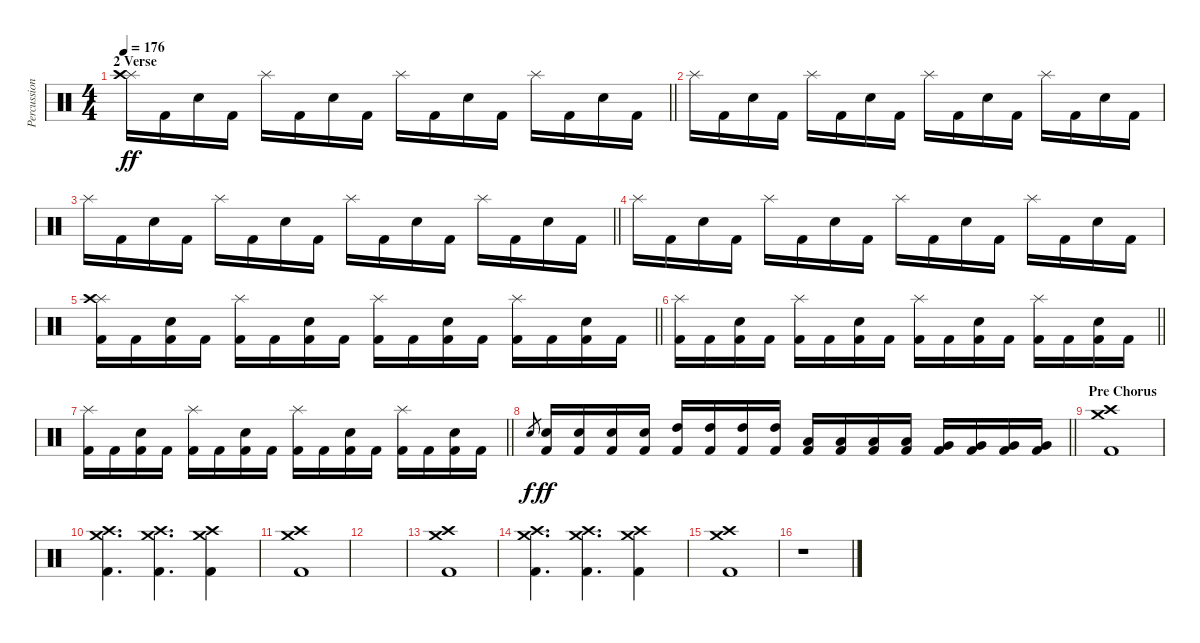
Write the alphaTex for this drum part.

\track ("Percussion" "Percussion") {instrument percussion}
\staff {score}
\articulation defaults
\ts (4 4)
\section ("" "2 Verse")
\tempo 176
\clef neutral
\barLineRight lightlight
\ks c
("Splash (hit)" "Crash high (hit)").16{dy ff} "Kick (hit) 2".16 "Electric Snare (hit)".16 "Kick (hit) 2".16 "Splash (hit)".16 "Kick (hit) 2".16 "Electric Snare (hit)".16 "Kick (hit) 2".16 "Splash (hit)".16 "Kick (hit) 2".16 "Electric Snare (hit)".16 "Kick (hit) 2".16 "Splash (hit)".16 "Kick (hit) 2".16 "Electric Snare (hit)".16 "Kick (hit) 2".16 |
"Splash (hit)".16 "Kick (hit) 2".16 "Electric Snare (hit)".16 "Kick (hit) 2".16 "Splash (hit)".16 "Kick (hit) 2".16 "Electric Snare (hit)".16 "Kick (hit) 2".16 "Splash (hit)".16 "Kick (hit) 2".16 "Electric Snare (hit)".16 "Kick (hit) 2".16 "Splash (hit)".16 "Kick (hit) 2".16 "Electric Snare (hit)".16 "Kick (hit) 2".16 |
\barLineRight lightlight "Splash (hit)".16 "Kick (hit) 2".16 "Electric Snare (hit)".16 "Kick (hit) 2".16 "Splash (hit)".16 "Kick (hit) 2".16 "Electric Snare (hit)".16 "Kick (hit) 2".16 "Splash (hit)".16 "Kick (hit) 2".16 "Electric Snare (hit)".16 "Kick (hit) 2".16 "Splash (hit)".16 "Kick (hit) 2".16 "Electric Snare (hit)".16 "Kick (hit) 2".16
|
"Splash (hit)".16 "Kick (hit) 2".16 "Electric Snare (hit)".16 "Kick (hit) 2".16 "Splash (hit)".16 "Kick (hit) 2".16 "Electric Snare (hit)".16 "Kick (hit) 2".16 "Splash (hit)".16 "Kick (hit) 2".16 "Electric Snare (hit)".16 "Kick (hit) 2".16 "Splash (hit)".16 "Kick (hit) 2".16 "Electric Snare (hit)".16 "Kick (hit) 2".16 |
\barLineRight lightlight
("Kick (hit) 2" "Splash (hit)" "Crash high (hit)").16 "Kick (hit) 2".16 ("Kick (hit) 2" "Electric Snare (hit)").16 "Kick (hit) 2".16 ("Kick (hit) 2" "Splash (hit)").16 "Kick (hit) 2".16 ("Kick (hit) 2" "Electric Snare (hit)").16 "Kick (hit) 2".16 ("Kick (hit) 2" "Splash (hit)").16 "Kick (hit) 2".16 ("Kick (hit) 2" "Electric Snare (hit)").16 "Kick (hit) 2".16 ("Kick (hit) 2" "Splash (hit)").16 "Kick (hit) 2".16 ("Kick (hit) 2" "Electric Snare (hit)").16 "Kick (hit) 2".16 |
\barLineRight lightlight
("Kick (hit) 2" "Splash (hit)").16 "Kick (hit) 2".16 ("Kick (hit) 2" "Electric Snare (hit)").16 "Kick (hit) 2".16 ("Kick (hit) 2" "Splash (hit)").16 "Kick (hit) 2".16 ("Kick (hit) 2" "Electric Snare (hit)").16 "Kick (hit) 2".16 ("Kick (hit) 2" "Splash (hit)").16 "Kick (hit) 2".16 ("Kick (hit) 2" "Electric Snare (hit)").16 "Kick (hit) 2".16 ("Kick (hit) 2" "Splash (hit)").16 "Kick (hit) 2".16 ("Kick (hit) 2" "Electric Snare (hit)").16 "Kick (hit) 2".16 |
\section ("" "")
\barLineRight lightlight
("Kick (hit) 2" "Splash (hit)").16 "Kick (hit) 2".16 ("Kick (hit) 2" "Electric Snare (hit)").16 "Kick (hit) 2".16 ("Kick (hit) 2" "Splash (hit)").16 "Kick (hit) 2".16 ("Kick (hit) 2" "Electric Snare (hit)").16 "Kick (hit) 2".16 ("Kick (hit) 2" "Splash (hit)").16 "Kick (hit) 2".16 ("Kick (hit) 2" "Electric Snare (hit)").16 "Kick (hit) 2".16 ("Kick (hit) 2" "Splash (hit)").16 "Kick (hit) 2".16 ("Kick (hit) 2" "Electric Snare (hit)").16 "Kick (hit) 2".16 |
\barLineRight lightlight "Electric Snare (hit)".8{gr dy f}
("Kick (hit) 2" "Electric Snare (hit)").16{dy ff} ("Kick (hit) 2" "Electric Snare (hit)").16 ("Kick (hit) 2" "Electric Snare (hit)").16 ("Kick (hit) 2" "Electric Snare (hit)").16 ("Kick (hit) 2" "High Tom (hit)").16 ("Kick (hit) 2" "High Tom (hit)").16 ("Kick (hit) 2" "High Tom (hit)").16 ("Kick (hit) 2" "High Tom (hit)").16 ("Kick (hit) 2" "Low Tom (hit)").16 ("Kick (hit) 2" "Low Tom (hit)").16 ("Kick (hit) 2" "Low Tom (hit)").16 ("Kick (hit) 2" "Low Tom (hit)").16 ("Kick (hit) 2" "Very Low Tom (hit)").16 ("Kick (hit) 2" "Very Low Tom (hit)").16 ("Kick (hit) 2" "Very Low Tom (hit)").16 ("Kick (hit) 2" "Very Low Tom (hit)").16 |
\section ("" "Pre Chorus")
("Kick (hit) 2" "Crash high (hit)" "Crash medium (hit)").1 |
("Kick (hit) 2" "Crash high (hit)" "Crash medium (hit)").4{d} ("Kick (hit) 2" "Crash high (hit)" "Crash medium (hit)").4{d} ("Kick (hit) 2" "Crash high (hit)" "Crash medium (hit)").4 |
("Kick (hit) 2" "Crash high (hit)" "Crash medium (hit)").1 |
|
("Kick (hit) 2" "Crash high (hit)" "Crash medium (hit)").1 |
("Kick (hit) 2" "Crash high (hit)" "Crash medium (hit)").4{d} ("Kick (hit) 2" "Crash high (hit)" "Crash medium (hit)").4{d} ("Kick (hit) 2" "Crash high (hit)" "Crash medium (hit)").4 |
("Kick (hit) 2" "Crash high (hit)" "Crash medium (hit)").1 |
r.1
